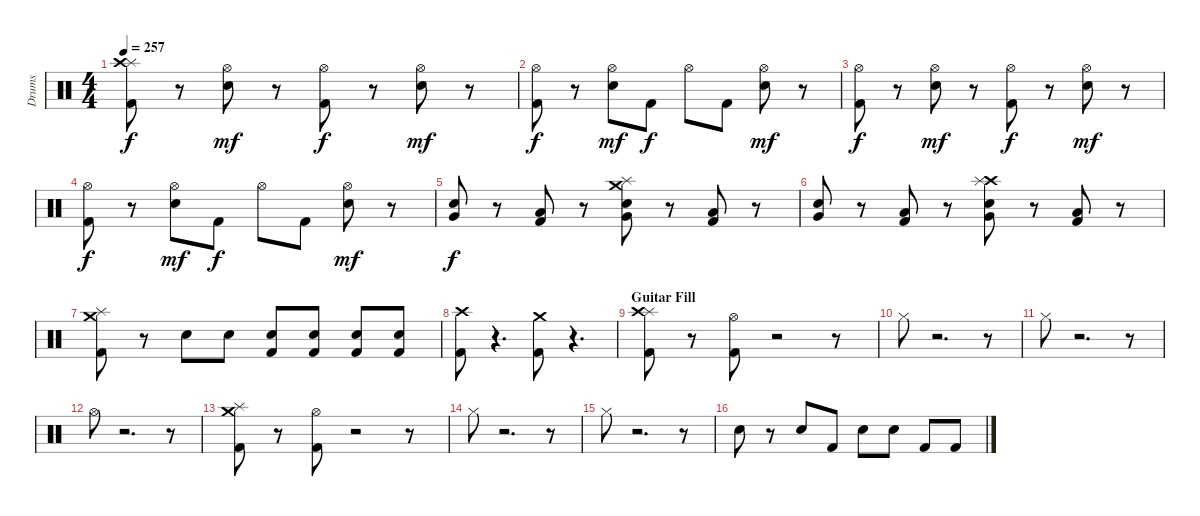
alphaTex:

\track ("Drums" "Drums") {instrument percussion}
\staff {score}
\articulation defaults
\ts (4 4)
\tempo 257
\clef neutral
\ks c
("Splash (hit)" "Crash high (hit)" "Kick (hit) 2").8{dy f} r.8 ("Snare (hit) 2" "Hi-Hat (open)").8{dy mf} r.8 ("Kick (hit) 2" "Hi-Hat (open)").8{dy f} r.8 ("Snare (hit) 2" "Hi-Hat (open)").8{dy mf} r.8 |
("Kick (hit) 2" "Hi-Hat (open)").8{dy f} r.8 ("Snare (hit) 2" "Hi-Hat (open)").8{dy mf} "Kick (hit) 2".8{dy f} "Hi-Hat (open)".8 "Kick (hit) 2".8 ("Snare (hit) 2" "Hi-Hat (open)").8{dy mf} r.8 |
("Hi-Hat (open)" "Kick (hit) 2").8{dy f} r.8 ("Snare (hit) 2" "Hi-Hat (open)").8{dy mf} r.8 ("Kick (hit) 2" "Hi-Hat (open)").8{dy f} r.8 ("Snare (hit) 2" "Hi-Hat (open)").8{dy mf} r.8 |
("Kick (hit) 2" "Hi-Hat (open)").8{dy f} r.8 ("Snare (hit) 2" "Hi-Hat (open)").8{dy mf} "Kick (hit) 2".8{dy f} "Hi-Hat (open)".8 "Kick (hit) 2".8 ("Snare (hit) 2" "Hi-Hat (open)").8{dy mf} r.8 |
("Snare (hit) 2" "Very Low Tom (hit)").8{dy f} r.8 ("Kick (hit) 2" "Low Floor Tom (hit)").8 r.8 ("Very Low Tom (hit)" "Snare (hit) 2" "Crash medium (hit)" "Splash (hit)").8 r.8 ("Low Floor Tom (hit)" "Kick (hit) 2").8 r.8 |
("Snare (hit) 2" "Very Low Tom (hit)").8 r.8 ("Kick (hit) 2" "Low Floor Tom (hit)").8 r.8 ("Very Low Tom (hit)" "Snare (hit) 2" "Crash high (hit)" "Splash (hit)").8 r.8 ("Low Floor Tom (hit)" "Kick (hit) 2").8 r.8 |
("Kick (hit) 2" "Splash (hit)" "Crash medium (hit)").8 r.8 "Snare (hit) 2".8 "Snare (hit) 2".8 ("Snare (hit) 2" "Kick (hit) 2").8 ("Snare (hit) 2" "Kick (hit) 2").8 ("Snare (hit) 2" "Kick (hit) 2").8 ("Snare (hit) 2" "Kick (hit) 2").8 |
("Crash high (hit)" "Kick (hit) 2").8 r.4{d} ("Crash medium (hit)" "Kick (hit) 2").8 r.4{d} |
\section ("" "Guitar Fill")
("Splash (hit)" "Crash high (hit)" "Kick (hit) 2").8 r.8 ("Kick (hit) 2" "Hi-Hat (open)").8 r.2 r.8 |
"Hi-Hat (closed)".8 r.2{d} r.8 |
"Hi-Hat (closed)".8 r.2{d} r.8 |
"Hi-Hat (open)".8 r.2{d} r.8 |
("Crash medium (hit)" "Splash (hit)" "Kick (hit) 2").8 r.8 ("Kick (hit) 2" "Hi-Hat (open)").8 r.2 r.8 |
"Hi-Hat (closed)".8 r.2{d} r.8 |
"Hi-Hat (closed)".8 r.2{d} r.8 |
"Snare (hit) 2".8 r.8 "Snare (hit) 2".8 "Kick (hit) 2".8 "Snare (hit) 2".8 "Snare (hit) 2".8 "Kick (hit) 2".8 "Kick (hit) 2".8
